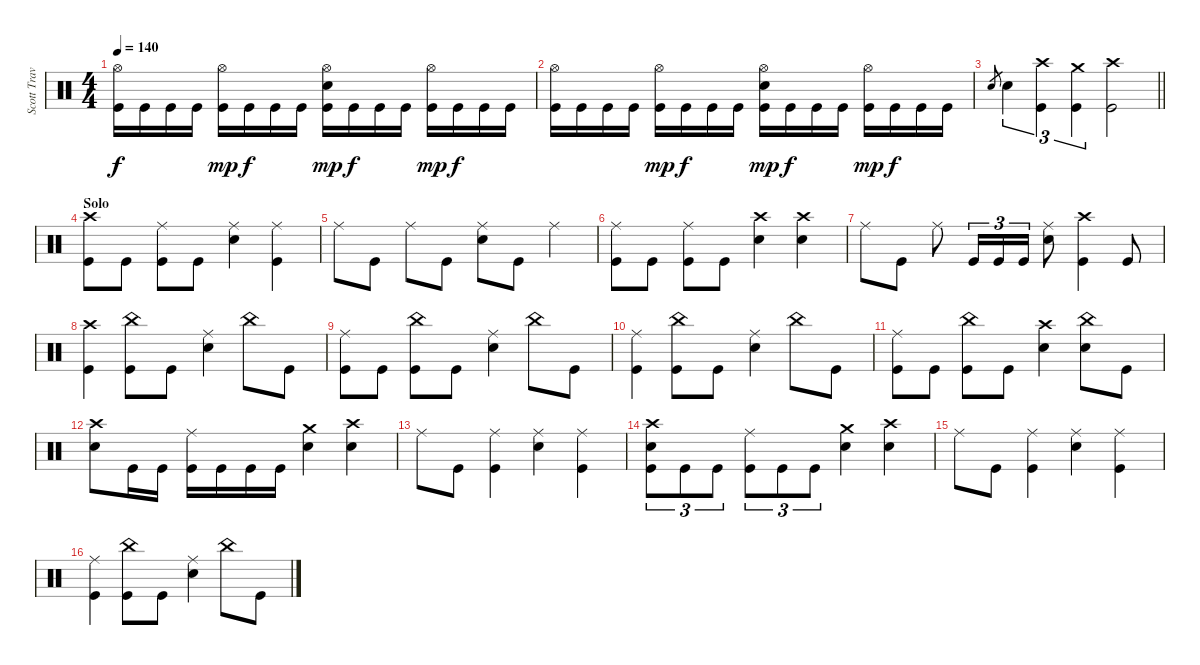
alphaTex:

\track ("Scott Travis" "Scott Trav") {instrument percussion}
\staff {score}
\articulation defaults
\ts (4 4)
\tempo 140
\clef neutral
\ks c
("Hi-Hat (open)" "Kick (hit)").16{dy f} "Kick (hit)".16 "Kick (hit)".16 "Kick (hit)".16 ("Hi-Hat (open)" "Kick (hit)").16{dy mp} "Kick (hit)".16{dy f} "Kick (hit)".16 "Kick (hit)".16 ("Hi-Hat (open)" "Snare (hit) 2" "Kick (hit)").16{dy mp} "Kick (hit)".16{dy f} "Kick (hit)".16 "Kick (hit)".16 ("Hi-Hat (open)" "Kick (hit)").16{dy mp} "Kick (hit)".16{dy f} "Kick (hit)".16 "Kick (hit)".16 |
("Hi-Hat (open)" "Kick (hit)").16 "Kick (hit)".16 "Kick (hit)".16 "Kick (hit)".16 ("Hi-Hat (open)" "Kick (hit)").16{dy mp} "Kick (hit)".16{dy f} "Kick (hit)".16 "Kick (hit)".16 ("Hi-Hat (open)" "Snare (hit) 2" "Kick (hit)").16{dy mp} "Kick (hit)".16{dy f} "Kick (hit)".16 "Kick (hit)".16 ("Hi-Hat (open)" "Kick (hit)").16{dy mp} "Kick (hit)".16{dy f} "Kick (hit)".16 "Kick (hit)".16 |
\barLineRight lightlight "Snare (hit) 2".8{gr} "Snare (hit) 2".4{tu (3 2)}
("Crash high (hit)" "Kick (hit)").4{tu (3 2)} ("Crash medium (hit)" "Kick (hit)").4{tu (3 2)} ("Crash high (hit)" "Kick (hit)").2 |
\section ("" "Solo")
("Crash high (hit)" "Kick (hit)").8 "Kick (hit)".8 ("Ride (middle)" "Kick (hit)").8 "Kick (hit)".8 ("Ride (middle)" "Snare (hit) 2").4 ("Ride (middle)" "Kick (hit)").4 |
"Ride (middle)".8 "Kick (hit)".8 "Ride (middle)".8 "Kick (hit)".8 ("Ride (middle)" "Snare (hit) 2").8 "Kick (hit)".8 "Ride (middle)".4 |
("Ride (middle)" "Kick (hit)").8 "Kick (hit)".8 ("Ride (middle)" "Kick (hit)").8 "Kick (hit)".8 ("Crash high (hit)" "Snare (hit) 2").4 ("Crash high (hit)" "Snare (hit) 2").4 |
"Ride (middle)".8 "Kick (hit)".8 "Ride (middle)".8 "Kick (hit)".16{tu (3 2)} "Kick (hit)".16{tu (3 2)} "Kick (hit)".16{tu (3 2)} ("Ride (middle)" "Snare (hit) 2").8 ("Crash high (hit)" "Kick (hit)").4 "Kick (hit)".8 |
("Crash high (hit)" "Kick (hit)").4 ("China (hit)" "Kick (hit)").8 "Kick (hit)".8 ("Ride (middle)" "Snare (hit) 2").4 "China (hit)".8 "Kick (hit)".8 |
("Ride (middle)" "Kick (hit)").8 "Kick (hit)".8 ("China (hit)" "Kick (hit)").8 "Kick (hit)".8 ("Ride (middle)" "Snare (hit) 2").4 "China (hit)".8 "Kick (hit)".8 |
("Ride (middle)" "Kick (hit)").4 ("China (hit)" "Kick (hit)").8 "Kick (hit)".8 ("Ride (middle)" "Snare (hit) 2").4 "China (hit)".8 "Kick (hit)".8 |
("Ride (middle)" "Kick (hit)").8 "Kick (hit)".8 ("China (hit)" "Kick (hit)").8 "Kick (hit)".8 ("Crash high (hit)" "Snare (hit) 2").4 ("China (hit)" "Snare (hit) 2").8 "Kick (hit)".8 |
("Crash high (hit)" "Snare (hit) 2").8 "Kick (hit)".16 "Kick (hit)".16 ("Ride (middle)" "Kick (hit)").16 "Kick (hit)".16 "Kick (hit)".16 "Kick (hit)".16 ("Crash medium (hit)" "Snare (hit) 2").4 ("Crash high (hit)" "Snare (hit) 2").4 |
"Ride (middle)".8 "Kick (hit)".8 ("Ride (middle)" "Kick (hit)").4 ("Ride (middle)" "Snare (hit) 2").4 ("Ride (middle)" "Kick (hit)").4 |
("Crash high (hit)" "Snare (hit) 2" "Kick (hit)").8{tu (3 2)} "Kick (hit)".8{tu (3 2)} "Kick (hit)".8{tu (3 2)} ("Ride (middle)" "Kick (hit)").8{tu (3 2)} "Kick (hit)".8{tu (3 2)} "Kick (hit)".8{tu (3 2)} ("Crash medium (hit)" "Snare (hit) 2").4 ("Crash high (hit)" "Snare (hit) 2").4 |
"Ride (middle)".8 "Kick (hit)".8 ("Ride (middle)" "Kick (hit)").4 ("Ride (middle)" "Snare (hit) 2").4 ("Ride (middle)" "Kick (hit)").4 |
("Ride (middle)" "Kick (hit)").4 ("China (hit)" "Kick (hit)").8 "Kick (hit)".8 ("Ride (middle)" "Snare (hit) 2").4 "China (hit)".8 "Kick (hit)".8
